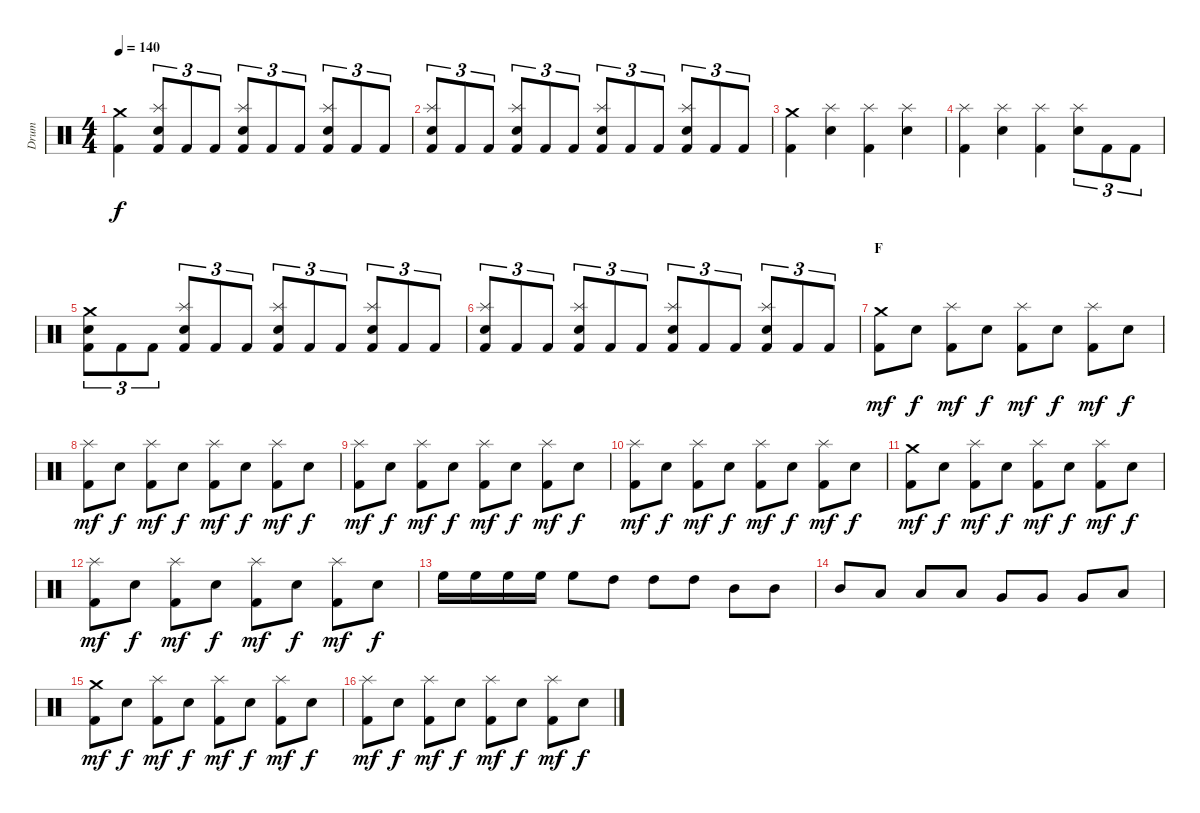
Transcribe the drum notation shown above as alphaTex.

\track ("Drum" "Drum") {instrument percussion}
\staff {score}
\articulation defaults
\ts (4 4)
\tempo 140
\clef neutral
\ks c
("Crash medium (hit)" "Kick (hit) 2").4{dy f} ("Splash (hit)" "Electric Snare (hit)" "Kick (hit) 2").8{tu (3 2)} "Kick (hit) 2".8{tu (3 2)} "Kick (hit) 2".8{tu (3 2)} ("Splash (hit)" "Electric Snare (hit)" "Kick (hit) 2").8{tu (3 2)} "Kick (hit) 2".8{tu (3 2)} "Kick (hit) 2".8{tu (3 2)} ("Splash (hit)" "Electric Snare (hit)" "Kick (hit) 2").8{tu (3 2)} "Kick (hit) 2".8{tu (3 2)} "Kick (hit) 2".8{tu (3 2)} |
("Splash (hit)" "Electric Snare (hit)" "Kick (hit) 2").8{tu (3 2)} "Kick (hit) 2".8{tu (3 2)} "Kick (hit) 2".8{tu (3 2)} ("Splash (hit)" "Electric Snare (hit)" "Kick (hit) 2").8{tu (3 2)} "Kick (hit) 2".8{tu (3 2)} "Kick (hit) 2".8{tu (3 2)} ("Splash (hit)" "Electric Snare (hit)" "Kick (hit) 2").8{tu (3 2)} "Kick (hit) 2".8{tu (3 2)} "Kick (hit) 2".8{tu (3 2)} ("Splash (hit)" "Electric Snare (hit)" "Kick (hit) 2").8{tu (3 2)} "Kick (hit) 2".8{tu (3 2)} "Kick (hit) 2".8{tu (3 2)} |
("Crash medium (hit)" "Kick (hit) 2").4 ("Splash (hit)" "Electric Snare (hit)").4 ("Splash (hit)" "Kick (hit) 2").4 ("Splash (hit)" "Electric Snare (hit)").4 |
("Splash (hit)" "Kick (hit) 2").4 ("Splash (hit)" "Electric Snare (hit)").4 ("Splash (hit)" "Kick (hit) 2").4 ("Splash (hit)" "Electric Snare (hit)").8{tu (3 2)} "Kick (hit) 2".8{tu (3 2)} "Kick (hit) 2".8{tu (3 2)} |
("Crash medium (hit)" "Electric Snare (hit)" "Kick (hit) 2").8{tu (3 2)} "Kick (hit) 2".8{tu (3 2)} "Kick (hit) 2".8{tu (3 2)} ("Splash (hit)" "Electric Snare (hit)" "Kick (hit) 2").8{tu (3 2)} "Kick (hit) 2".8{tu (3 2)} "Kick (hit) 2".8{tu (3 2)} ("Splash (hit)" "Electric Snare (hit)" "Kick (hit) 2").8{tu (3 2)} "Kick (hit) 2".8{tu (3 2)} "Kick (hit) 2".8{tu (3 2)} ("Splash (hit)" "Electric Snare (hit)" "Kick (hit) 2").8{tu (3 2)} "Kick (hit) 2".8{tu (3 2)} "Kick (hit) 2".8{tu (3 2)} |
("Splash (hit)" "Electric Snare (hit)" "Kick (hit) 2").8{tu (3 2)} "Kick (hit) 2".8{tu (3 2)} "Kick (hit) 2".8{tu (3 2)} ("Splash (hit)" "Electric Snare (hit)" "Kick (hit) 2").8{tu (3 2)} "Kick (hit) 2".8{tu (3 2)} "Kick (hit) 2".8{tu (3 2)} ("Splash (hit)" "Electric Snare (hit)" "Kick (hit) 2").8{tu (3 2)} "Kick (hit) 2".8{tu (3 2)} "Kick (hit) 2".8{tu (3 2)} ("Splash (hit)" "Electric Snare (hit)" "Kick (hit) 2").8{tu (3 2)} "Kick (hit) 2".8{tu (3 2)} "Kick (hit) 2".8{tu (3 2)} |
\section ("" "F")
("Crash medium (hit)" "Kick (hit) 2").8{dy mf} "Electric Snare (hit)".8{dy f} ("Splash (hit)" "Kick (hit) 2").8{dy mf} "Electric Snare (hit)".8{dy f} ("Splash (hit)" "Kick (hit) 2").8{dy mf} "Electric Snare (hit)".8{dy f} ("Splash (hit)" "Kick (hit) 2").8{dy mf} "Electric Snare (hit)".8{dy f} |
("Splash (hit)" "Kick (hit) 2").8{dy mf} "Electric Snare (hit)".8{dy f} ("Splash (hit)" "Kick (hit) 2").8{dy mf} "Electric Snare (hit)".8{dy f} ("Splash (hit)" "Kick (hit) 2").8{dy mf} "Electric Snare (hit)".8{dy f} ("Splash (hit)" "Kick (hit) 2").8{dy mf} "Electric Snare (hit)".8{dy f} |
("Splash (hit)" "Kick (hit) 2").8{dy mf} "Electric Snare (hit)".8{dy f} ("Splash (hit)" "Kick (hit) 2").8{dy mf} "Electric Snare (hit)".8{dy f} ("Splash (hit)" "Kick (hit) 2").8{dy mf} "Electric Snare (hit)".8{dy f} ("Splash (hit)" "Kick (hit) 2").8{dy mf} "Electric Snare (hit)".8{dy f} |
("Splash (hit)" "Kick (hit) 2").8{dy mf} "Electric Snare (hit)".8{dy f} ("Splash (hit)" "Kick (hit) 2").8{dy mf} "Electric Snare (hit)".8{dy f} ("Splash (hit)" "Kick (hit) 2").8{dy mf} "Electric Snare (hit)".8{dy f} ("Splash (hit)" "Kick (hit) 2").8{dy mf} "Electric Snare (hit)".8{dy f} |
("Crash medium (hit)" "Kick (hit) 2").8{dy mf} "Electric Snare (hit)".8{dy f} ("Splash (hit)" "Kick (hit) 2").8{dy mf} "Electric Snare (hit)".8{dy f} ("Splash (hit)" "Kick (hit) 2").8{dy mf} "Electric Snare (hit)".8{dy f} ("Splash (hit)" "Kick (hit) 2").8{dy mf} "Electric Snare (hit)".8{dy f} |
("Splash (hit)" "Kick (hit) 2").8{dy mf} "Electric Snare (hit)".8{dy f} ("Splash (hit)" "Kick (hit) 2").8{dy mf} "Electric Snare (hit)".8{dy f} ("Splash (hit)" "Kick (hit) 2").8{dy mf} "Electric Snare (hit)".8{dy f} ("Splash (hit)" "Kick (hit) 2").8{dy mf} "Electric Snare (hit)".8{dy f} |
"High Floor Tom (hit)".16 "High Floor Tom (hit)".16 "High Floor Tom (hit)".16 "High Floor Tom (hit)".16 "High Floor Tom (hit)".8 "High Tom (hit)".8 "High Tom (hit)".8 "High Tom (hit)".8 "Mid Tom (hit)".8 "Mid Tom (hit)".8 |
"Mid Tom (hit)".8 "Low Tom (hit)".8 "Low Tom (hit)".8 "Low Tom (hit)".8 "Very Low Tom (hit)".8 "Very Low Tom (hit)".8 "Very Low Tom (hit)".8 "Low Floor Tom (hit)".8 |
("Crash medium (hit)" "Kick (hit) 2").8{dy mf} "Electric Snare (hit)".8{dy f} ("Splash (hit)" "Kick (hit) 2").8{dy mf} "Electric Snare (hit)".8{dy f} ("Splash (hit)" "Kick (hit) 2").8{dy mf} "Electric Snare (hit)".8{dy f} ("Splash (hit)" "Kick (hit) 2").8{dy mf} "Electric Snare (hit)".8{dy f} |
("Splash (hit)" "Kick (hit) 2").8{dy mf} "Electric Snare (hit)".8{dy f} ("Splash (hit)" "Kick (hit) 2").8{dy mf} "Electric Snare (hit)".8{dy f} ("Splash (hit)" "Kick (hit) 2").8{dy mf} "Electric Snare (hit)".8{dy f} ("Splash (hit)" "Kick (hit) 2").8{dy mf} "Electric Snare (hit)".8{dy f}
